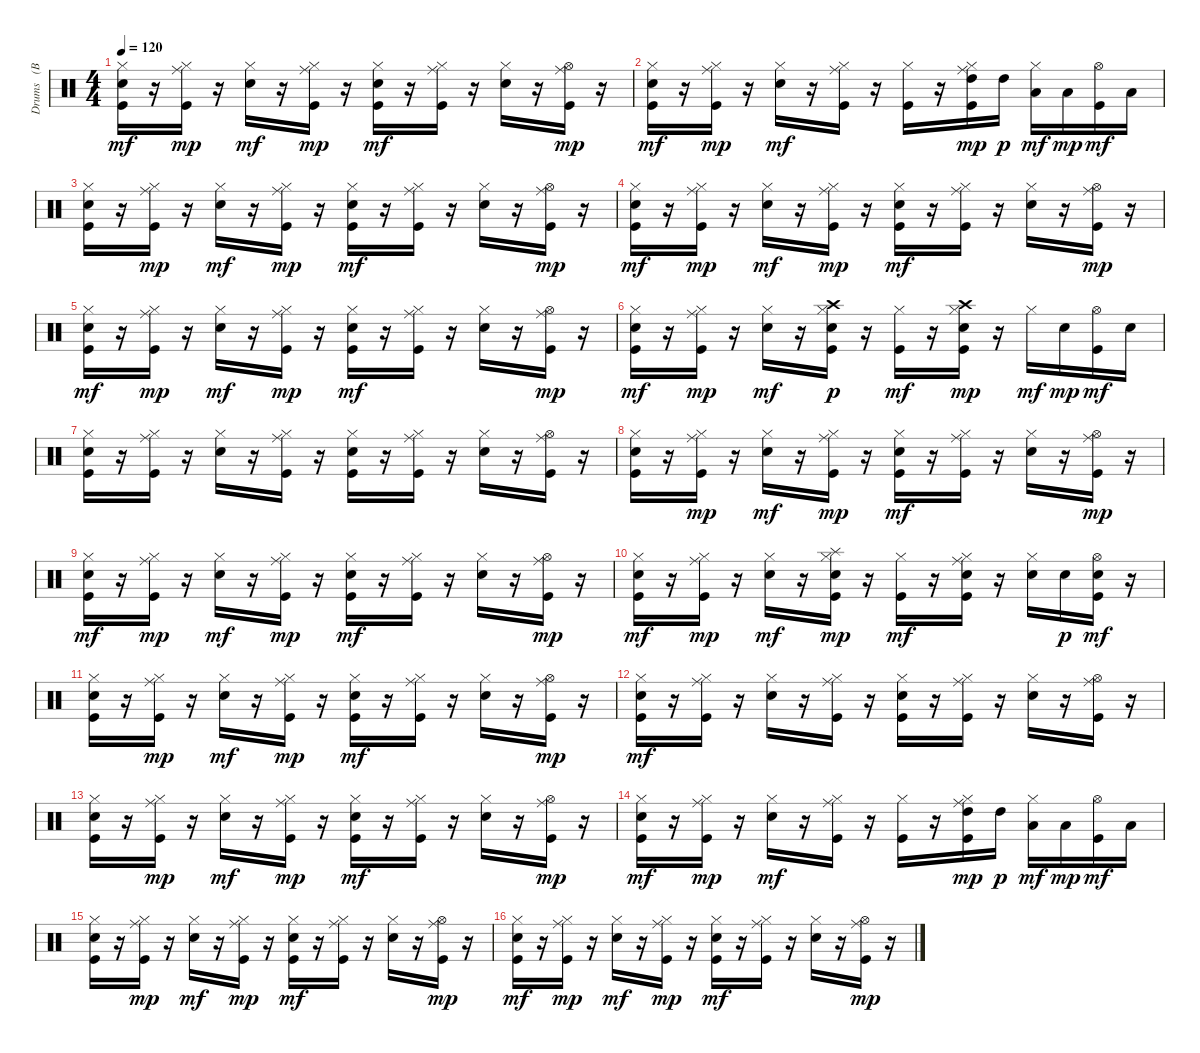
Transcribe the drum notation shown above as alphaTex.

\track ("Drums   (BB)" "Drums   (B") {instrument percussion}
\staff {score}
\articulation defaults
\ts (4 4)
\tempo 120
\clef neutral
\ks c
("Kick (hit)" "Electric Snare (hit)" "Hi-Hat (closed)").16{dy mf} r.16 ("Kick (hit)" "Hi-Hat (closed)" "Ride (middle)").16{dy mp} r.16 ("Electric Snare (hit)" "Hi-Hat (closed)").16{dy mf} r.16 ("Kick (hit)" "Hi-Hat (closed)" "Ride (middle)").16{dy mp} r.16 ("Kick (hit)" "Electric Snare (hit)" "Hi-Hat (closed)").16{dy mf} r.16 ("Kick (hit)" "Hi-Hat (closed)" "Ride (middle)").16 r.16 ("Electric Snare (hit)" "Hi-Hat (closed)").16 r.16 ("Kick (hit)" "Hi-Hat (open)" "Ride (middle)").16{dy mp} r.16 |
("Kick (hit)" "Electric Snare (hit)" "Hi-Hat (closed)").16{dy mf} r.16 ("Kick (hit)" "Hi-Hat (closed)" "Ride (middle)").16{dy mp} r.16 ("Electric Snare (hit)" "Hi-Hat (closed)").16{dy mf} r.16 ("Kick (hit)" "Hi-Hat (closed)" "Ride (middle)").16 r.16 ("Kick (hit)" "Hi-Hat (closed)").16 r.16 ("Kick (hit)" "Hi-Hat (closed)" "Ride (middle)" "High Tom (hit)").16{dy mp} "High Tom (hit)".16{dy p} ("Hi-Hat (closed)" "Low Tom (hit)").16{dy mf} "Low Tom (hit)".16{dy mp} ("Kick (hit)" "Hi-Hat (open)").16{dy mf} "Low Tom (hit)".16 |
("Kick (hit)" "Electric Snare (hit)" "Hi-Hat (closed)").16 r.16 ("Kick (hit)" "Hi-Hat (closed)" "Ride (middle)").16{dy mp} r.16 ("Electric Snare (hit)" "Hi-Hat (closed)").16{dy mf} r.16 ("Kick (hit)" "Hi-Hat (closed)" "Ride (middle)").16{dy mp} r.16 ("Kick (hit)" "Electric Snare (hit)" "Hi-Hat (closed)").16{dy mf} r.16 ("Kick (hit)" "Hi-Hat (closed)" "Ride (middle)").16 r.16 ("Electric Snare (hit)" "Hi-Hat (closed)").16 r.16 ("Kick (hit)" "Hi-Hat (open)" "Ride (middle)").16{dy mp} r.16 |
("Kick (hit)" "Electric Snare (hit)" "Hi-Hat (closed)").16{dy mf} r.16 ("Kick (hit)" "Hi-Hat (closed)" "Ride (middle)").16{dy mp} r.16 ("Electric Snare (hit)" "Hi-Hat (closed)").16{dy mf} r.16 ("Kick (hit)" "Hi-Hat (closed)" "Ride (middle)").16{dy mp} r.16 ("Kick (hit)" "Electric Snare (hit)" "Hi-Hat (closed)").16{dy mf} r.16 ("Kick (hit)" "Hi-Hat (closed)" "Ride (middle)").16 r.16 ("Electric Snare (hit)" "Hi-Hat (closed)").16 r.16 ("Kick (hit)" "Hi-Hat (open)" "Ride (middle)").16{dy mp} r.16 |
("Kick (hit)" "Electric Snare (hit)" "Hi-Hat (closed)").16{dy mf} r.16 ("Kick (hit)" "Hi-Hat (closed)" "Ride (middle)").16{dy mp} r.16 ("Electric Snare (hit)" "Hi-Hat (closed)").16{dy mf} r.16 ("Kick (hit)" "Hi-Hat (closed)" "Ride (middle)").16{dy mp} r.16 ("Kick (hit)" "Electric Snare (hit)" "Hi-Hat (closed)").16{dy mf} r.16 ("Kick (hit)" "Hi-Hat (closed)" "Ride (middle)").16 r.16 ("Electric Snare (hit)" "Hi-Hat (closed)").16 r.16 ("Kick (hit)" "Hi-Hat (open)" "Ride (middle)").16{dy mp} r.16 |
("Kick (hit)" "Electric Snare (hit)" "Hi-Hat (closed)").16{dy mf} r.16 ("Kick (hit)" "Hi-Hat (closed)" "Ride (middle)").16{dy mp} r.16 ("Electric Snare (hit)" "Hi-Hat (closed)").16{dy mf} r.16 ("Kick (hit)" "Electric Snare (hit)" "Hi-Hat (closed)" "Crash high (hit)").16{dy p} r.16 ("Kick (hit)" "Hi-Hat (closed)").16{dy mf} r.16 ("Kick (hit)" "Electric Snare (hit)" "Hi-Hat (closed)" "Crash high (hit)").16{dy mp} r.16 "Hi-Hat (closed)".16{dy mf} "Electric Snare (hit)".16{dy mp} ("Kick (hit)" "Hi-Hat (open)").16{dy mf} "Electric Snare (hit)".16 |
("Kick (hit)" "Electric Snare (hit)" "Hi-Hat (closed)").16 r.16 ("Kick (hit)" "Hi-Hat (closed)" "Ride (middle)").16 r.16 ("Electric Snare (hit)" "Hi-Hat (closed)").16 r.16 ("Kick (hit)" "Hi-Hat (closed)" "Ride (middle)").16 r.16 ("Kick (hit)" "Electric Snare (hit)" "Hi-Hat (closed)").16 r.16 ("Kick (hit)" "Hi-Hat (closed)" "Ride (middle)").16 r.16 ("Electric Snare (hit)" "Hi-Hat (closed)").16 r.16 ("Kick (hit)" "Hi-Hat (open)" "Ride (middle)").16 r.16 |
("Kick (hit)" "Electric Snare (hit)" "Hi-Hat (closed)").16 r.16 ("Kick (hit)" "Hi-Hat (closed)" "Ride (middle)").16{dy mp} r.16 ("Electric Snare (hit)" "Hi-Hat (closed)").16{dy mf} r.16 ("Kick (hit)" "Hi-Hat (closed)" "Ride (middle)").16{dy mp} r.16 ("Kick (hit)" "Electric Snare (hit)" "Hi-Hat (closed)").16{dy mf} r.16 ("Kick (hit)" "Hi-Hat (closed)" "Ride (middle)").16 r.16 ("Electric Snare (hit)" "Hi-Hat (closed)").16 r.16 ("Kick (hit)" "Hi-Hat (open)" "Ride (middle)").16{dy mp} r.16 |
("Kick (hit)" "Electric Snare (hit)" "Hi-Hat (closed)").16{dy mf} r.16 ("Kick (hit)" "Hi-Hat (closed)" "Ride (middle)").16{dy mp} r.16 ("Electric Snare (hit)" "Hi-Hat (closed)").16{dy mf} r.16 ("Kick (hit)" "Hi-Hat (closed)" "Ride (middle)").16{dy mp} r.16 ("Kick (hit)" "Electric Snare (hit)" "Hi-Hat (closed)").16{dy mf} r.16 ("Kick (hit)" "Hi-Hat (closed)" "Ride (middle)").16 r.16 ("Electric Snare (hit)" "Hi-Hat (closed)").16 r.16 ("Kick (hit)" "Hi-Hat (open)" "Ride (middle)").16{dy mp} r.16 |
("Kick (hit)" "Electric Snare (hit)" "Hi-Hat (closed)").16{dy mf} r.16 ("Kick (hit)" "Hi-Hat (closed)" "Ride (middle)").16{dy mp} r.16 ("Electric Snare (hit)" "Hi-Hat (closed)").16{dy mf} r.16 ("Kick (hit)" "Electric Snare (hit)" "Hi-Hat (closed)" "Splash (hit)").16{dy mp} r.16 ("Kick (hit)" "Hi-Hat (closed)").16{dy mf} r.16 ("Kick (hit)" "Electric Snare (hit)" "Hi-Hat (closed)" "Ride (middle)").16 r.16 ("Electric Snare (hit)" "Hi-Hat (closed)").16 "Electric Snare (hit)".16{dy p} ("Kick (hit)" "Electric Snare (hit)" "Hi-Hat (open)").16{dy mf} r.16 |
("Kick (hit)" "Electric Snare (hit)" "Hi-Hat (closed)").16 r.16 ("Kick (hit)" "Hi-Hat (closed)" "Ride (middle)").16{dy mp} r.16 ("Electric Snare (hit)" "Hi-Hat (closed)").16{dy mf} r.16 ("Kick (hit)" "Hi-Hat (closed)" "Ride (middle)").16{dy mp} r.16 ("Kick (hit)" "Electric Snare (hit)" "Hi-Hat (closed)").16{dy mf} r.16 ("Kick (hit)" "Hi-Hat (closed)" "Ride (middle)").16 r.16 ("Electric Snare (hit)" "Hi-Hat (closed)").16 r.16 ("Kick (hit)" "Hi-Hat (open)" "Ride (middle)").16{dy mp} r.16 |
("Kick (hit)" "Electric Snare (hit)" "Hi-Hat (closed)").16{dy mf} r.16 ("Kick (hit)" "Hi-Hat (closed)" "Ride (middle)").16 r.16 ("Electric Snare (hit)" "Hi-Hat (closed)").16 r.16 ("Kick (hit)" "Hi-Hat (closed)" "Ride (middle)").16 r.16 ("Kick (hit)" "Electric Snare (hit)" "Hi-Hat (closed)").16 r.16 ("Kick (hit)" "Hi-Hat (closed)" "Ride (middle)").16 r.16 ("Electric Snare (hit)" "Hi-Hat (closed)").16 r.16 ("Kick (hit)" "Hi-Hat (open)" "Ride (middle)").16 r.16 |
("Kick (hit)" "Electric Snare (hit)" "Hi-Hat (closed)").16 r.16 ("Kick (hit)" "Hi-Hat (closed)" "Ride (middle)").16{dy mp} r.16 ("Electric Snare (hit)" "Hi-Hat (closed)").16{dy mf} r.16 ("Kick (hit)" "Hi-Hat (closed)" "Ride (middle)").16{dy mp} r.16 ("Kick (hit)" "Electric Snare (hit)" "Hi-Hat (closed)").16{dy mf} r.16 ("Kick (hit)" "Hi-Hat (closed)" "Ride (middle)").16 r.16 ("Electric Snare (hit)" "Hi-Hat (closed)").16 r.16 ("Kick (hit)" "Hi-Hat (open)" "Ride (middle)").16{dy mp} r.16 |
("Kick (hit)" "Electric Snare (hit)" "Hi-Hat (closed)").16{dy mf} r.16 ("Kick (hit)" "Hi-Hat (closed)" "Ride (middle)").16{dy mp} r.16 ("Electric Snare (hit)" "Hi-Hat (closed)").16{dy mf} r.16 ("Kick (hit)" "Hi-Hat (closed)" "Ride (middle)").16 r.16 ("Kick (hit)" "Hi-Hat (closed)").16 r.16 ("Kick (hit)" "Hi-Hat (closed)" "Ride (middle)" "High Tom (hit)").16{dy mp} "High Tom (hit)".16{dy p} ("Hi-Hat (closed)" "Low Tom (hit)").16{dy mf} "Low Tom (hit)".16{dy mp} ("Kick (hit)" "Hi-Hat (open)").16{dy mf} "Low Tom (hit)".16 |
("Kick (hit)" "Electric Snare (hit)" "Hi-Hat (closed)").16 r.16 ("Kick (hit)" "Hi-Hat (closed)" "Ride (middle)").16{dy mp} r.16 ("Electric Snare (hit)" "Hi-Hat (closed)").16{dy mf} r.16 ("Kick (hit)" "Hi-Hat (closed)" "Ride (middle)").16{dy mp} r.16 ("Kick (hit)" "Electric Snare (hit)" "Hi-Hat (closed)").16{dy mf} r.16 ("Kick (hit)" "Hi-Hat (closed)" "Ride (middle)").16 r.16 ("Electric Snare (hit)" "Hi-Hat (closed)").16 r.16 ("Kick (hit)" "Hi-Hat (open)" "Ride (middle)").16{dy mp} r.16 |
("Kick (hit)" "Electric Snare (hit)" "Hi-Hat (closed)").16{dy mf} r.16 ("Kick (hit)" "Hi-Hat (closed)" "Ride (middle)").16{dy mp} r.16 ("Electric Snare (hit)" "Hi-Hat (closed)").16{dy mf} r.16 ("Kick (hit)" "Hi-Hat (closed)" "Ride (middle)").16{dy mp} r.16 ("Kick (hit)" "Electric Snare (hit)" "Hi-Hat (closed)").16{dy mf} r.16 ("Kick (hit)" "Hi-Hat (closed)" "Ride (middle)").16 r.16 ("Electric Snare (hit)" "Hi-Hat (closed)").16 r.16 ("Kick (hit)" "Hi-Hat (open)" "Ride (middle)").16{dy mp} r.16
